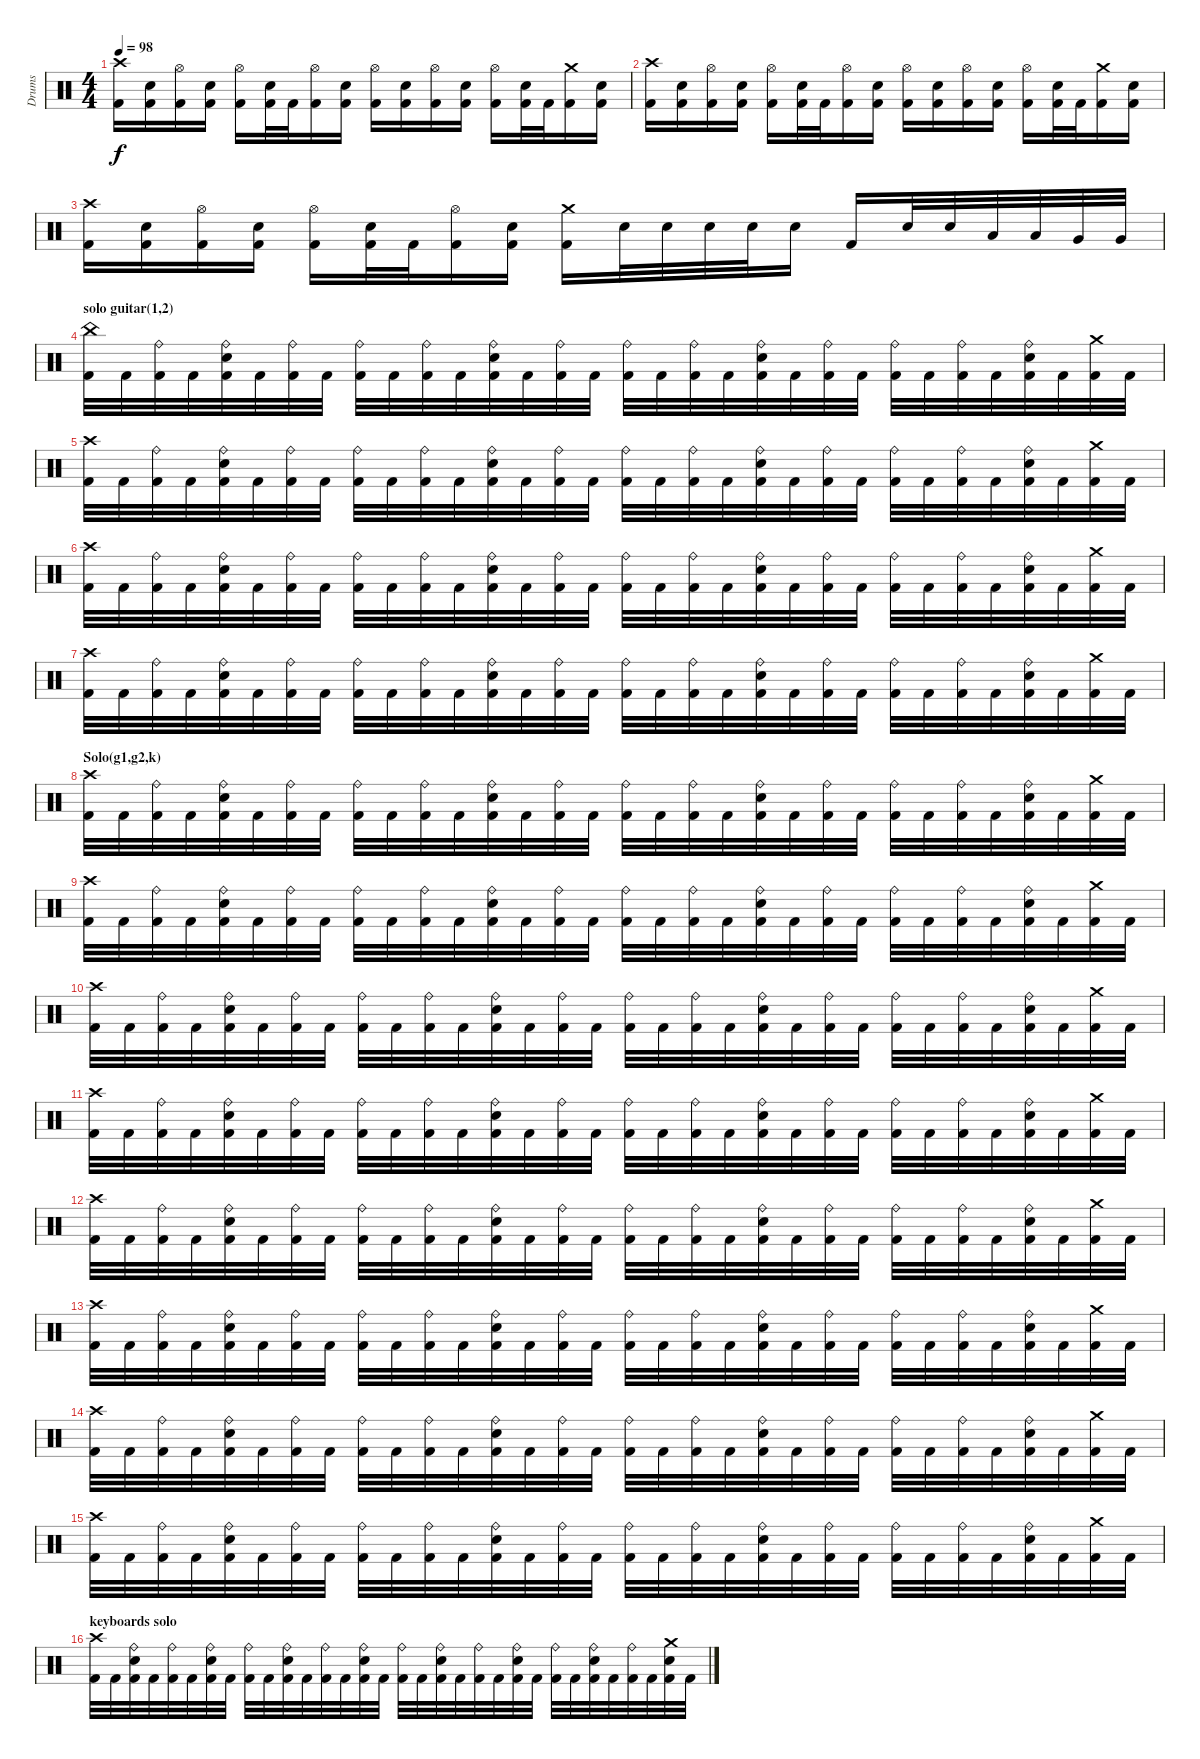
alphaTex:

\track ("Drums" "Drums") {instrument percussion}
\staff {score}
\articulation defaults
\ts (4 4)
\tempo 98
\clef neutral
\ks c
("Crash high (hit)" "Kick (hit) 2").16{dy f} ("Electric Snare (hit)" "Kick (hit) 2").16 ("Hi-Hat (open)" "Kick (hit) 2").16 ("Electric Snare (hit)" "Kick (hit) 2").16 ("Hi-Hat (open)" "Kick (hit) 2").16 ("Electric Snare (hit)" "Kick (hit) 2").32 "Kick (hit) 2".32 ("Hi-Hat (open)" "Kick (hit) 2").16 ("Electric Snare (hit)" "Kick (hit) 2").16 ("Hi-Hat (open)" "Kick (hit) 2").16 ("Electric Snare (hit)" "Kick (hit) 2").16 ("Hi-Hat (open)" "Kick (hit) 2").16 ("Electric Snare (hit)" "Kick (hit) 2").16 ("Hi-Hat (open)" "Kick (hit) 2").16 ("Electric Snare (hit)" "Kick (hit) 2").32 "Kick (hit) 2".32 ("Crash medium (hit)" "Kick (hit) 2").16 ("Electric Snare (hit)" "Kick (hit) 2").16 |
("Crash high (hit)" "Kick (hit) 2").16 ("Electric Snare (hit)" "Kick (hit) 2").16 ("Hi-Hat (open)" "Kick (hit) 2").16 ("Electric Snare (hit)" "Kick (hit) 2").16 ("Hi-Hat (open)" "Kick (hit) 2").16 ("Electric Snare (hit)" "Kick (hit) 2").32 "Kick (hit) 2".32 ("Hi-Hat (open)" "Kick (hit) 2").16 ("Electric Snare (hit)" "Kick (hit) 2").16 ("Hi-Hat (open)" "Kick (hit) 2").16 ("Electric Snare (hit)" "Kick (hit) 2").16 ("Hi-Hat (open)" "Kick (hit) 2").16 ("Electric Snare (hit)" "Kick (hit) 2").16 ("Hi-Hat (open)" "Kick (hit) 2").16 ("Electric Snare (hit)" "Kick (hit) 2").32 "Kick (hit) 2".32 ("Crash medium (hit)" "Kick (hit) 2").16 ("Electric Snare (hit)" "Kick (hit) 2").16 |
("Crash high (hit)" "Kick (hit) 2").16 ("Electric Snare (hit)" "Kick (hit) 2").16 ("Hi-Hat (open)" "Kick (hit) 2").16 ("Electric Snare (hit)" "Kick (hit) 2").16 ("Hi-Hat (open)" "Kick (hit) 2").16 ("Electric Snare (hit)" "Kick (hit) 2").32 "Kick (hit) 2".32 ("Hi-Hat (open)" "Kick (hit) 2").16 ("Electric Snare (hit)" "Kick (hit) 2").16 ("Crash medium (hit)" "Kick (hit) 2").16 "Electric Snare (hit)".32 "Electric Snare (hit)".32 "Electric Snare (hit)".32 "Electric Snare (hit)".32 "Electric Snare (hit)".16 "Kick (hit) 2".16 "Electric Snare (hit)".32 "Electric Snare (hit)".32 "Low Tom (hit)".32 "Low Tom (hit)".32 "Very Low Tom (hit)".32 "Very Low Tom (hit)".32 |
\section ("" "solo guitar(1,2)")
("China (hit)" "Kick (hit) 2").32 "Kick (hit) 2".32 ("Ride (bell)" "Kick (hit) 2").32 "Kick (hit) 2".32 ("Ride (bell)" "Electric Snare (hit)" "Kick (hit) 2").32 "Kick (hit) 2".32 ("Ride (bell)" "Kick (hit) 2").32 "Kick (hit) 2".32 ("Ride (bell)" "Kick (hit) 2").32 "Kick (hit) 2".32 ("Ride (bell)" "Kick (hit) 2").32 "Kick (hit) 2".32 ("Ride (bell)" "Electric Snare (hit)" "Kick (hit) 2").32 "Kick (hit) 2".32 ("Ride (bell)" "Kick (hit) 2").32 "Kick (hit) 2".32 ("Ride (bell)" "Kick (hit) 2").32 "Kick (hit) 2".32 ("Ride (bell)" "Kick (hit) 2").32 "Kick (hit) 2".32 ("Ride (bell)" "Electric Snare (hit)" "Kick (hit) 2").32 "Kick (hit) 2".32 ("Ride (bell)" "Kick (hit) 2").32 "Kick (hit) 2".32 ("Ride (bell)" "Kick (hit) 2").32 "Kick (hit) 2".32 ("Ride (bell)" "Kick (hit) 2").32 "Kick (hit) 2".32 ("Ride (bell)" "Electric Snare (hit)" "Kick (hit) 2").32 "Kick (hit) 2".32 ("Crash medium (hit)" "Kick (hit) 2").32 "Kick (hit) 2".32 |
("Crash high (hit)" "Kick (hit) 2").32 "Kick (hit) 2".32 ("Ride (bell)" "Kick (hit) 2").32 "Kick (hit) 2".32 ("Ride (bell)" "Electric Snare (hit)" "Kick (hit) 2").32 "Kick (hit) 2".32 ("Ride (bell)" "Kick (hit) 2").32 "Kick (hit) 2".32 ("Ride (bell)" "Kick (hit) 2").32 "Kick (hit) 2".32 ("Ride (bell)" "Kick (hit) 2").32 "Kick (hit) 2".32 ("Ride (bell)" "Electric Snare (hit)" "Kick (hit) 2").32 "Kick (hit) 2".32 ("Ride (bell)" "Kick (hit) 2").32 "Kick (hit) 2".32 ("Ride (bell)" "Kick (hit) 2").32 "Kick (hit) 2".32 ("Ride (bell)" "Kick (hit) 2").32 "Kick (hit) 2".32 ("Ride (bell)" "Electric Snare (hit)" "Kick (hit) 2").32 "Kick (hit) 2".32 ("Ride (bell)" "Kick (hit) 2").32 "Kick (hit) 2".32 ("Ride (bell)" "Kick (hit) 2").32 "Kick (hit) 2".32 ("Ride (bell)" "Kick (hit) 2").32 "Kick (hit) 2".32 ("Ride (bell)" "Electric Snare (hit)" "Kick (hit) 2").32 "Kick (hit) 2".32 ("Crash medium (hit)" "Kick (hit) 2").32 "Kick (hit) 2".32 |
("Crash high (hit)" "Kick (hit) 2").32 "Kick (hit) 2".32 ("Ride (bell)" "Kick (hit) 2").32 "Kick (hit) 2".32 ("Ride (bell)" "Electric Snare (hit)" "Kick (hit) 2").32 "Kick (hit) 2".32 ("Ride (bell)" "Kick (hit) 2").32 "Kick (hit) 2".32 ("Ride (bell)" "Kick (hit) 2").32 "Kick (hit) 2".32 ("Ride (bell)" "Kick (hit) 2").32 "Kick (hit) 2".32 ("Ride (bell)" "Electric Snare (hit)" "Kick (hit) 2").32 "Kick (hit) 2".32 ("Ride (bell)" "Kick (hit) 2").32 "Kick (hit) 2".32 ("Ride (bell)" "Kick (hit) 2").32 "Kick (hit) 2".32 ("Ride (bell)" "Kick (hit) 2").32 "Kick (hit) 2".32 ("Ride (bell)" "Electric Snare (hit)" "Kick (hit) 2").32 "Kick (hit) 2".32 ("Ride (bell)" "Kick (hit) 2").32 "Kick (hit) 2".32 ("Ride (bell)" "Kick (hit) 2").32 "Kick (hit) 2".32 ("Ride (bell)" "Kick (hit) 2").32 "Kick (hit) 2".32 ("Ride (bell)" "Electric Snare (hit)" "Kick (hit) 2").32 "Kick (hit) 2".32 ("Crash medium (hit)" "Kick (hit) 2").32 "Kick (hit) 2".32 |
("Crash high (hit)" "Kick (hit) 2").32 "Kick (hit) 2".32 ("Ride (bell)" "Kick (hit) 2").32 "Kick (hit) 2".32 ("Ride (bell)" "Electric Snare (hit)" "Kick (hit) 2").32 "Kick (hit) 2".32 ("Ride (bell)" "Kick (hit) 2").32 "Kick (hit) 2".32 ("Ride (bell)" "Kick (hit) 2").32 "Kick (hit) 2".32 ("Ride (bell)" "Kick (hit) 2").32 "Kick (hit) 2".32 ("Ride (bell)" "Electric Snare (hit)" "Kick (hit) 2").32 "Kick (hit) 2".32 ("Ride (bell)" "Kick (hit) 2").32 "Kick (hit) 2".32 ("Ride (bell)" "Kick (hit) 2").32 "Kick (hit) 2".32 ("Ride (bell)" "Kick (hit) 2").32 "Kick (hit) 2".32 ("Ride (bell)" "Electric Snare (hit)" "Kick (hit) 2").32 "Kick (hit) 2".32 ("Ride (bell)" "Kick (hit) 2").32 "Kick (hit) 2".32 ("Ride (bell)" "Kick (hit) 2").32 "Kick (hit) 2".32 ("Ride (bell)" "Kick (hit) 2").32 "Kick (hit) 2".32 ("Ride (bell)" "Electric Snare (hit)" "Kick (hit) 2").32 "Kick (hit) 2".32 ("Crash medium (hit)" "Kick (hit) 2").32 "Kick (hit) 2".32 |
\section ("" "Solo(g1,g2,k)")
("Crash high (hit)" "Kick (hit) 2").32 "Kick (hit) 2".32 ("Ride (bell)" "Kick (hit) 2").32 "Kick (hit) 2".32 ("Ride (bell)" "Electric Snare (hit)" "Kick (hit) 2").32 "Kick (hit) 2".32 ("Ride (bell)" "Kick (hit) 2").32 "Kick (hit) 2".32 ("Ride (bell)" "Kick (hit) 2").32 "Kick (hit) 2".32 ("Ride (bell)" "Kick (hit) 2").32 "Kick (hit) 2".32 ("Ride (bell)" "Electric Snare (hit)" "Kick (hit) 2").32 "Kick (hit) 2".32 ("Ride (bell)" "Kick (hit) 2").32 "Kick (hit) 2".32 ("Ride (bell)" "Kick (hit) 2").32 "Kick (hit) 2".32 ("Ride (bell)" "Kick (hit) 2").32 "Kick (hit) 2".32 ("Ride (bell)" "Electric Snare (hit)" "Kick (hit) 2").32 "Kick (hit) 2".32 ("Ride (bell)" "Kick (hit) 2").32 "Kick (hit) 2".32 ("Ride (bell)" "Kick (hit) 2").32 "Kick (hit) 2".32 ("Ride (bell)" "Kick (hit) 2").32 "Kick (hit) 2".32 ("Ride (bell)" "Electric Snare (hit)" "Kick (hit) 2").32 "Kick (hit) 2".32 ("Crash medium (hit)" "Kick (hit) 2").32 "Kick (hit) 2".32 |
("Crash high (hit)" "Kick (hit) 2").32 "Kick (hit) 2".32 ("Ride (bell)" "Kick (hit) 2").32 "Kick (hit) 2".32 ("Ride (bell)" "Electric Snare (hit)" "Kick (hit) 2").32 "Kick (hit) 2".32 ("Ride (bell)" "Kick (hit) 2").32 "Kick (hit) 2".32 ("Ride (bell)" "Kick (hit) 2").32 "Kick (hit) 2".32 ("Ride (bell)" "Kick (hit) 2").32 "Kick (hit) 2".32 ("Ride (bell)" "Electric Snare (hit)" "Kick (hit) 2").32 "Kick (hit) 2".32 ("Ride (bell)" "Kick (hit) 2").32 "Kick (hit) 2".32 ("Ride (bell)" "Kick (hit) 2").32 "Kick (hit) 2".32 ("Ride (bell)" "Kick (hit) 2").32 "Kick (hit) 2".32 ("Ride (bell)" "Electric Snare (hit)" "Kick (hit) 2").32 "Kick (hit) 2".32 ("Ride (bell)" "Kick (hit) 2").32 "Kick (hit) 2".32 ("Ride (bell)" "Kick (hit) 2").32 "Kick (hit) 2".32 ("Ride (bell)" "Kick (hit) 2").32 "Kick (hit) 2".32 ("Ride (bell)" "Electric Snare (hit)" "Kick (hit) 2").32 "Kick (hit) 2".32 ("Crash medium (hit)" "Kick (hit) 2").32 "Kick (hit) 2".32 |
("Crash high (hit)" "Kick (hit) 2").32 "Kick (hit) 2".32 ("Ride (bell)" "Kick (hit) 2").32 "Kick (hit) 2".32 ("Ride (bell)" "Electric Snare (hit)" "Kick (hit) 2").32 "Kick (hit) 2".32 ("Ride (bell)" "Kick (hit) 2").32 "Kick (hit) 2".32 ("Ride (bell)" "Kick (hit) 2").32 "Kick (hit) 2".32 ("Ride (bell)" "Kick (hit) 2").32 "Kick (hit) 2".32 ("Ride (bell)" "Electric Snare (hit)" "Kick (hit) 2").32 "Kick (hit) 2".32 ("Ride (bell)" "Kick (hit) 2").32 "Kick (hit) 2".32 ("Ride (bell)" "Kick (hit) 2").32 "Kick (hit) 2".32 ("Ride (bell)" "Kick (hit) 2").32 "Kick (hit) 2".32 ("Ride (bell)" "Electric Snare (hit)" "Kick (hit) 2").32 "Kick (hit) 2".32 ("Ride (bell)" "Kick (hit) 2").32 "Kick (hit) 2".32 ("Ride (bell)" "Kick (hit) 2").32 "Kick (hit) 2".32 ("Ride (bell)" "Kick (hit) 2").32 "Kick (hit) 2".32 ("Ride (bell)" "Electric Snare (hit)" "Kick (hit) 2").32 "Kick (hit) 2".32 ("Crash medium (hit)" "Kick (hit) 2").32 "Kick (hit) 2".32 |
("Crash high (hit)" "Kick (hit) 2").32 "Kick (hit) 2".32 ("Ride (bell)" "Kick (hit) 2").32 "Kick (hit) 2".32 ("Ride (bell)" "Electric Snare (hit)" "Kick (hit) 2").32 "Kick (hit) 2".32 ("Ride (bell)" "Kick (hit) 2").32 "Kick (hit) 2".32 ("Ride (bell)" "Kick (hit) 2").32 "Kick (hit) 2".32 ("Ride (bell)" "Kick (hit) 2").32 "Kick (hit) 2".32 ("Ride (bell)" "Electric Snare (hit)" "Kick (hit) 2").32 "Kick (hit) 2".32 ("Ride (bell)" "Kick (hit) 2").32 "Kick (hit) 2".32 ("Ride (bell)" "Kick (hit) 2").32 "Kick (hit) 2".32 ("Ride (bell)" "Kick (hit) 2").32 "Kick (hit) 2".32 ("Ride (bell)" "Electric Snare (hit)" "Kick (hit) 2").32 "Kick (hit) 2".32 ("Ride (bell)" "Kick (hit) 2").32 "Kick (hit) 2".32 ("Ride (bell)" "Kick (hit) 2").32 "Kick (hit) 2".32 ("Ride (bell)" "Kick (hit) 2").32 "Kick (hit) 2".32 ("Ride (bell)" "Electric Snare (hit)" "Kick (hit) 2").32 "Kick (hit) 2".32 ("Crash medium (hit)" "Kick (hit) 2").32 "Kick (hit) 2".32 |
("Crash high (hit)" "Kick (hit) 2").32 "Kick (hit) 2".32 ("Ride (bell)" "Kick (hit) 2").32 "Kick (hit) 2".32 ("Ride (bell)" "Electric Snare (hit)" "Kick (hit) 2").32 "Kick (hit) 2".32 ("Ride (bell)" "Kick (hit) 2").32 "Kick (hit) 2".32 ("Ride (bell)" "Kick (hit) 2").32 "Kick (hit) 2".32 ("Ride (bell)" "Kick (hit) 2").32 "Kick (hit) 2".32 ("Ride (bell)" "Electric Snare (hit)" "Kick (hit) 2").32 "Kick (hit) 2".32 ("Ride (bell)" "Kick (hit) 2").32 "Kick (hit) 2".32 ("Ride (bell)" "Kick (hit) 2").32 "Kick (hit) 2".32 ("Ride (bell)" "Kick (hit) 2").32 "Kick (hit) 2".32 ("Ride (bell)" "Electric Snare (hit)" "Kick (hit) 2").32 "Kick (hit) 2".32 ("Ride (bell)" "Kick (hit) 2").32 "Kick (hit) 2".32 ("Ride (bell)" "Kick (hit) 2").32 "Kick (hit) 2".32 ("Ride (bell)" "Kick (hit) 2").32 "Kick (hit) 2".32 ("Ride (bell)" "Electric Snare (hit)" "Kick (hit) 2").32 "Kick (hit) 2".32 ("Crash medium (hit)" "Kick (hit) 2").32 "Kick (hit) 2".32 |
("Crash high (hit)" "Kick (hit) 2").32 "Kick (hit) 2".32 ("Ride (bell)" "Kick (hit) 2").32 "Kick (hit) 2".32 ("Ride (bell)" "Electric Snare (hit)" "Kick (hit) 2").32 "Kick (hit) 2".32 ("Ride (bell)" "Kick (hit) 2").32 "Kick (hit) 2".32 ("Ride (bell)" "Kick (hit) 2").32 "Kick (hit) 2".32 ("Ride (bell)" "Kick (hit) 2").32 "Kick (hit) 2".32 ("Ride (bell)" "Electric Snare (hit)" "Kick (hit) 2").32 "Kick (hit) 2".32 ("Ride (bell)" "Kick (hit) 2").32 "Kick (hit) 2".32 ("Ride (bell)" "Kick (hit) 2").32 "Kick (hit) 2".32 ("Ride (bell)" "Kick (hit) 2").32 "Kick (hit) 2".32 ("Ride (bell)" "Electric Snare (hit)" "Kick (hit) 2").32 "Kick (hit) 2".32 ("Ride (bell)" "Kick (hit) 2").32 "Kick (hit) 2".32 ("Ride (bell)" "Kick (hit) 2").32 "Kick (hit) 2".32 ("Ride (bell)" "Kick (hit) 2").32 "Kick (hit) 2".32 ("Ride (bell)" "Electric Snare (hit)" "Kick (hit) 2").32 "Kick (hit) 2".32 ("Crash medium (hit)" "Kick (hit) 2").32 "Kick (hit) 2".32 |
("Crash high (hit)" "Kick (hit) 2").32 "Kick (hit) 2".32 ("Ride (bell)" "Kick (hit) 2").32 "Kick (hit) 2".32 ("Ride (bell)" "Electric Snare (hit)" "Kick (hit) 2").32 "Kick (hit) 2".32 ("Ride (bell)" "Kick (hit) 2").32 "Kick (hit) 2".32 ("Ride (bell)" "Kick (hit) 2").32 "Kick (hit) 2".32 ("Ride (bell)" "Kick (hit) 2").32 "Kick (hit) 2".32 ("Ride (bell)" "Electric Snare (hit)" "Kick (hit) 2").32 "Kick (hit) 2".32 ("Ride (bell)" "Kick (hit) 2").32 "Kick (hit) 2".32 ("Ride (bell)" "Kick (hit) 2").32 "Kick (hit) 2".32 ("Ride (bell)" "Kick (hit) 2").32 "Kick (hit) 2".32 ("Ride (bell)" "Electric Snare (hit)" "Kick (hit) 2").32 "Kick (hit) 2".32 ("Ride (bell)" "Kick (hit) 2").32 "Kick (hit) 2".32 ("Ride (bell)" "Kick (hit) 2").32 "Kick (hit) 2".32 ("Ride (bell)" "Kick (hit) 2").32 "Kick (hit) 2".32 ("Ride (bell)" "Electric Snare (hit)" "Kick (hit) 2").32 "Kick (hit) 2".32 ("Crash medium (hit)" "Kick (hit) 2").32 "Kick (hit) 2".32 |
("Crash high (hit)" "Kick (hit) 2").32 "Kick (hit) 2".32 ("Ride (bell)" "Kick (hit) 2").32 "Kick (hit) 2".32 ("Ride (bell)" "Electric Snare (hit)" "Kick (hit) 2").32 "Kick (hit) 2".32 ("Ride (bell)" "Kick (hit) 2").32 "Kick (hit) 2".32 ("Ride (bell)" "Kick (hit) 2").32 "Kick (hit) 2".32 ("Ride (bell)" "Kick (hit) 2").32 "Kick (hit) 2".32 ("Ride (bell)" "Electric Snare (hit)" "Kick (hit) 2").32 "Kick (hit) 2".32 ("Ride (bell)" "Kick (hit) 2").32 "Kick (hit) 2".32 ("Ride (bell)" "Kick (hit) 2").32 "Kick (hit) 2".32 ("Ride (bell)" "Kick (hit) 2").32 "Kick (hit) 2".32 ("Ride (bell)" "Electric Snare (hit)" "Kick (hit) 2").32 "Kick (hit) 2".32 ("Ride (bell)" "Kick (hit) 2").32 "Kick (hit) 2".32 ("Ride (bell)" "Kick (hit) 2").32 "Kick (hit) 2".32 ("Ride (bell)" "Kick (hit) 2").32 "Kick (hit) 2".32 ("Ride (bell)" "Electric Snare (hit)" "Kick (hit) 2").32 "Kick (hit) 2".32 ("Crash medium (hit)" "Kick (hit) 2").32 "Kick (hit) 2".32 |
\section ("" "keyboards solo")
("Crash high (hit)" "Kick (hit) 2").32 "Kick (hit) 2".32 ("Ride (bell)" "Electric Snare (hit)" "Kick (hit) 2").32 "Kick (hit) 2".32 ("Ride (bell)" "Kick (hit) 2").32 "Kick (hit) 2".32 ("Ride (bell)" "Electric Snare (hit)" "Kick (hit) 2").32 "Kick (hit) 2".32 ("Ride (bell)" "Kick (hit) 2").32 "Kick (hit) 2".32 ("Ride (bell)" "Electric Snare (hit)" "Kick (hit) 2").32 "Kick (hit) 2".32 ("Ride (bell)" "Kick (hit) 2").32 "Kick (hit) 2".32 ("Ride (bell)" "Electric Snare (hit)" "Kick (hit) 2").32 "Kick (hit) 2".32 ("Ride (bell)" "Kick (hit) 2").32 "Kick (hit) 2".32 ("Ride (bell)" "Electric Snare (hit)" "Kick (hit) 2").32 "Kick (hit) 2".32 ("Ride (bell)" "Kick (hit) 2").32 "Kick (hit) 2".32 ("Ride (bell)" "Electric Snare (hit)" "Kick (hit) 2").32 "Kick (hit) 2".32 ("Ride (bell)" "Kick (hit) 2").32 "Kick (hit) 2".32 ("Ride (bell)" "Electric Snare (hit)" "Kick (hit) 2").32 "Kick (hit) 2".32 ("Ride (bell)" "Kick (hit) 2").32 "Kick (hit) 2".32 ("Crash medium (hit)" "Electric Snare (hit)" "Kick (hit) 2").32 "Kick (hit) 2".32
